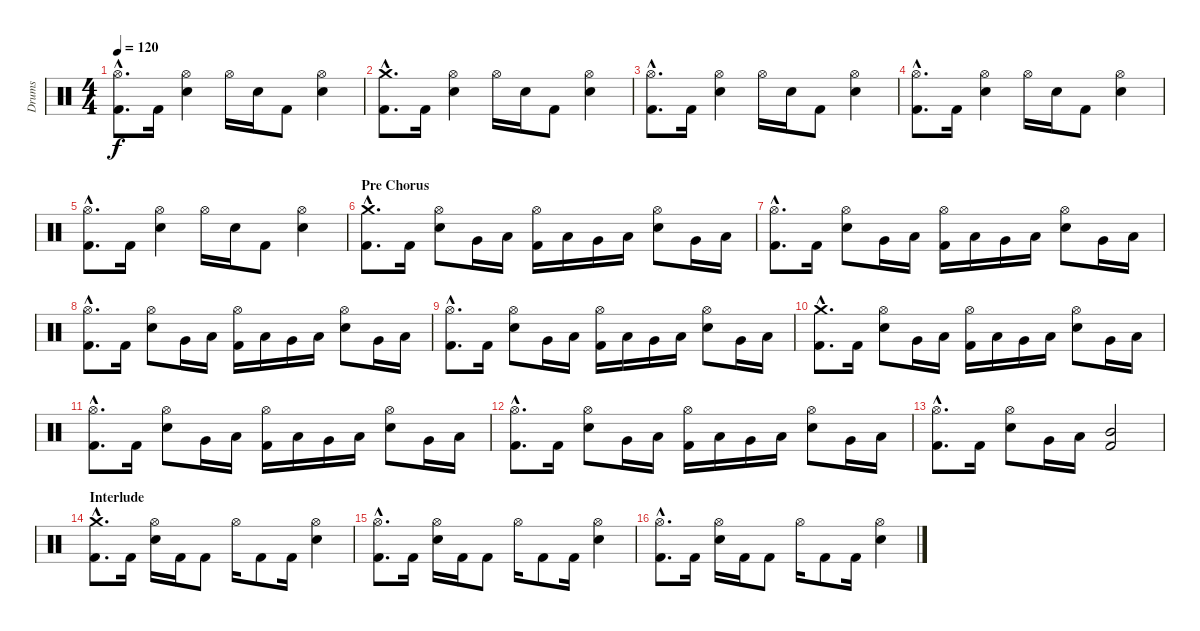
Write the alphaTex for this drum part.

\track ("Drums" "Drums") {instrument percussion}
\staff {score}
\articulation defaults
\ts (4 4)
\tempo 120
\clef neutral
\ks c
("Hi-Hat (open)"{hac} "Kick (hit) 2"{hac}).8{d dy f} "Kick (hit) 2".16 ("Hi-Hat (open)" "Electric Snare (hit)").4 "Hi-Hat (open)".16 "Electric Snare (hit)".16 "Kick (hit) 2".8 ("Hi-Hat (open)" "Electric Snare (hit)").4 |
("Crash medium (hit)"{hac} "Kick (hit) 2"{hac}).8{d} "Kick (hit) 2".16 ("Hi-Hat (open)" "Electric Snare (hit)").4 "Hi-Hat (open)".16 "Electric Snare (hit)".16 "Kick (hit) 2".8 ("Hi-Hat (open)" "Electric Snare (hit)").4 |
("Hi-Hat (open)"{hac} "Kick (hit) 2"{hac}).8{d} "Kick (hit) 2".16 ("Hi-Hat (open)" "Electric Snare (hit)").4 "Hi-Hat (open)".16 "Electric Snare (hit)".16 "Kick (hit) 2".8 ("Hi-Hat (open)" "Electric Snare (hit)").4 |
("Hi-Hat (open)"{hac} "Kick (hit) 2"{hac}).8{d} "Kick (hit) 2".16 ("Hi-Hat (open)" "Electric Snare (hit)").4 "Hi-Hat (open)".16 "Electric Snare (hit)".16 "Kick (hit) 2".8 ("Hi-Hat (open)" "Electric Snare (hit)").4 |
("Hi-Hat (open)"{hac} "Kick (hit) 2"{hac}).8{d} "Kick (hit) 2".16 ("Hi-Hat (open)" "Electric Snare (hit)").4 "Hi-Hat (open)".16 "Electric Snare (hit)".16 "Kick (hit) 2".8 ("Hi-Hat (open)" "Electric Snare (hit)").4 |
\section ("" "Pre Chorus")
("Crash medium (hit)"{hac} "Kick (hit) 2"{hac}).8{d} "Kick (hit) 2".16 ("Hi-Hat (open)" "Electric Snare (hit)").8 "Very Low Tom (hit)".16 "Low Tom (hit)".16 ("Hi-Hat (open)" "Kick (hit) 2").16 "Low Tom (hit)".16 "Very Low Tom (hit)".16 "Low Floor Tom (hit)".16 ("Hi-Hat (open)" "Electric Snare (hit)").8 "Very Low Tom (hit)".16 "Low Tom (hit)".16 |
("Hi-Hat (open)"{hac} "Kick (hit) 2"{hac}).8{d} "Kick (hit) 2".16 ("Hi-Hat (open)" "Electric Snare (hit)").8 "Very Low Tom (hit)".16 "Low Tom (hit)".16 ("Hi-Hat (open)" "Kick (hit) 2").16 "Low Tom (hit)".16 "Very Low Tom (hit)".16 "Low Floor Tom (hit)".16 ("Hi-Hat (open)" "Electric Snare (hit)").8 "Very Low Tom (hit)".16 "Low Tom (hit)".16 |
("Hi-Hat (open)"{hac} "Kick (hit) 2"{hac}).8{d} "Kick (hit) 2".16 ("Hi-Hat (open)" "Electric Snare (hit)").8 "Very Low Tom (hit)".16 "Low Tom (hit)".16 ("Hi-Hat (open)" "Kick (hit) 2").16 "Low Tom (hit)".16 "Very Low Tom (hit)".16 "Low Floor Tom (hit)".16 ("Hi-Hat (open)" "Electric Snare (hit)").8 "Very Low Tom (hit)".16 "Low Tom (hit)".16 |
("Hi-Hat (open)"{hac} "Kick (hit) 2"{hac}).8{d} "Kick (hit) 2".16 ("Hi-Hat (open)" "Electric Snare (hit)").8 "Very Low Tom (hit)".16 "Low Tom (hit)".16 ("Hi-Hat (open)" "Kick (hit) 2").16 "Low Tom (hit)".16 "Very Low Tom (hit)".16 "Low Floor Tom (hit)".16 ("Hi-Hat (open)" "Electric Snare (hit)").8 "Very Low Tom (hit)".16 "Low Tom (hit)".16 |
("Crash medium (hit)"{hac} "Kick (hit) 2"{hac}).8{d} "Kick (hit) 2".16 ("Hi-Hat (open)" "Electric Snare (hit)").8 "Very Low Tom (hit)".16 "Low Tom (hit)".16 ("Hi-Hat (open)" "Kick (hit) 2").16 "Low Tom (hit)".16 "Very Low Tom (hit)".16 "Low Floor Tom (hit)".16 ("Hi-Hat (open)" "Electric Snare (hit)").8 "Very Low Tom (hit)".16 "Low Tom (hit)".16 |
("Hi-Hat (open)"{hac} "Kick (hit) 2"{hac}).8{d} "Kick (hit) 2".16 ("Hi-Hat (open)" "Electric Snare (hit)").8 "Very Low Tom (hit)".16 "Low Tom (hit)".16 ("Hi-Hat (open)" "Kick (hit) 2").16 "Low Tom (hit)".16 "Very Low Tom (hit)".16 "Low Floor Tom (hit)".16 ("Hi-Hat (open)" "Electric Snare (hit)").8 "Very Low Tom (hit)".16 "Low Tom (hit)".16 |
("Hi-Hat (open)"{hac} "Kick (hit) 2"{hac}).8{d} "Kick (hit) 2".16 ("Hi-Hat (open)" "Electric Snare (hit)").8 "Very Low Tom (hit)".16 "Low Tom (hit)".16 ("Hi-Hat (open)" "Kick (hit) 2").16 "Low Tom (hit)".16 "Very Low Tom (hit)".16 "Low Floor Tom (hit)".16 ("Hi-Hat (open)" "Electric Snare (hit)").8 "Very Low Tom (hit)".16 "Low Tom (hit)".16 |
("Hi-Hat (open)"{hac} "Kick (hit) 2"{hac}).8{d} "Kick (hit) 2".16 ("Hi-Hat (open)" "Electric Snare (hit)").8 "Very Low Tom (hit)".16 "Low Tom (hit)".16 ("Mid Tom (hit)" "Kick (hit) 2").2 |
\section ("" "Interlude")
("Crash medium (hit)"{hac} "Kick (hit) 2"{hac}).8{d} "Kick (hit) 2".16 ("Hi-Hat (open)" "Electric Snare (hit)").16 "Kick (hit) 2".16 "Kick (hit) 2".8 "Hi-Hat (open)".16 "Kick (hit) 2".8 "Kick (hit) 2".16 ("Hi-Hat (open)" "Electric Snare (hit)").4 |
("Hi-Hat (open)"{hac} "Kick (hit) 2"{hac}).8{d} "Kick (hit) 2".16 ("Hi-Hat (open)" "Electric Snare (hit)").16 "Kick (hit) 2".16 "Kick (hit) 2".8 "Hi-Hat (open)".16 "Kick (hit) 2".8 "Kick (hit) 2".16 ("Hi-Hat (open)" "Electric Snare (hit)").4 |
("Hi-Hat (open)"{hac} "Kick (hit) 2"{hac}).8{d} "Kick (hit) 2".16 ("Hi-Hat (open)" "Electric Snare (hit)").16 "Kick (hit) 2".16 "Kick (hit) 2".8 "Hi-Hat (open)".16 "Kick (hit) 2".8 "Kick (hit) 2".16 ("Hi-Hat (open)" "Electric Snare (hit)").4
